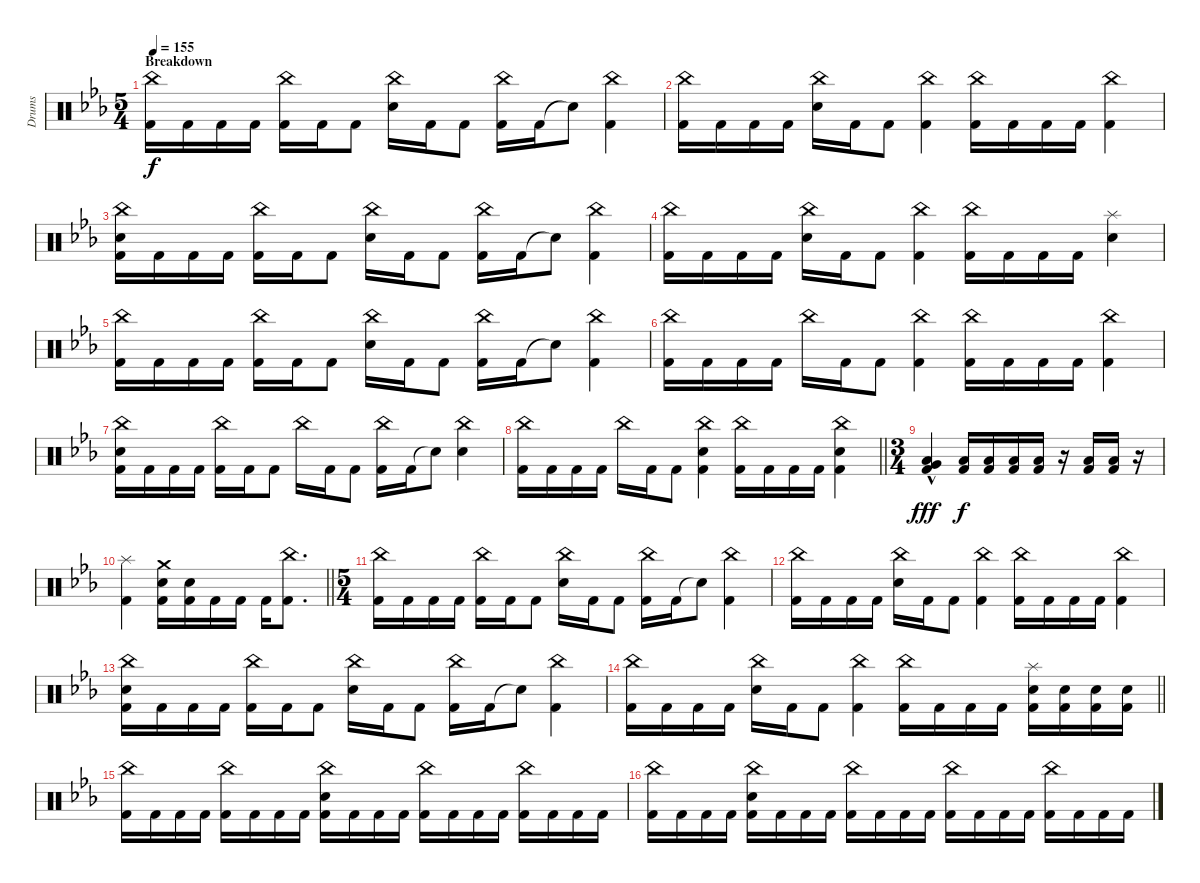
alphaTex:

\track ("Drums" "Drums") {instrument percussion}
\staff {score}
\articulation defaults
\ts (5 4)
\section ("" "Breakdown")
\tempo 155
\clef neutral
\ks cminor
("China (hit)" "Kick (hit) 2").16{dy f} "Kick (hit) 2".16 "Kick (hit) 2".16 "Kick (hit) 2".16 ("China (hit)" "Kick (hit) 2").16 "Kick (hit) 2".16 "Kick (hit) 2".8 ("China (hit)" "Electric Snare (hit)").16 "Kick (hit) 2".16 "Kick (hit) 2".8 ("China (hit)" "Kick (hit) 2").16 "Kick (hit) 2".16 "Snare (hit)"{t}.8 ("China (hit)" "Kick (hit) 2").4 |
("China (hit)" "Kick (hit) 2").16 "Kick (hit) 2".16 "Kick (hit) 2".16 "Kick (hit) 2".16 ("China (hit)" "Electric Snare (hit)").16 "Kick (hit) 2".16 "Kick (hit) 2".8 ("China (hit)" "Kick (hit) 2").4 ("China (hit)" "Kick (hit) 2").16 "Kick (hit) 2".16 "Kick (hit) 2".16 "Kick (hit) 2".16 ("China (hit)" "Kick (hit) 2").4 |
("China (hit)" "Electric Snare (hit)" "Kick (hit) 2").16 "Kick (hit) 2".16 "Kick (hit) 2".16 "Kick (hit) 2".16 ("China (hit)" "Kick (hit) 2").16 "Kick (hit) 2".16 "Kick (hit) 2".8 ("China (hit)" "Electric Snare (hit)").16 "Kick (hit) 2".16 "Kick (hit) 2".8 ("China (hit)" "Kick (hit) 2").16 "Kick (hit) 2".16 "Snare (hit)"{t}.8 ("China (hit)" "Kick (hit) 2").4 |
("China (hit)" "Kick (hit) 2").16 "Kick (hit) 2".16 "Kick (hit) 2".16 "Kick (hit) 2".16 ("China (hit)" "Electric Snare (hit)").16 "Kick (hit) 2".16 "Kick (hit) 2".8 ("China (hit)" "Kick (hit) 2").4 ("China (hit)" "Kick (hit) 2").16 "Kick (hit) 2".16 "Kick (hit) 2".16 "Kick (hit) 2".16 ("Splash (hit)" "Electric Snare (hit)").4 |
("China (hit)" "Kick (hit) 2").16 "Kick (hit) 2".16 "Kick (hit) 2".16 "Kick (hit) 2".16 ("China (hit)" "Kick (hit) 2").16 "Kick (hit) 2".16 "Kick (hit) 2".8 ("China (hit)" "Electric Snare (hit)").16 "Kick (hit) 2".16 "Kick (hit) 2".8 ("China (hit)" "Kick (hit) 2").16 "Kick (hit) 2".16 "Snare (hit)"{t}.8 ("China (hit)" "Kick (hit) 2").4 |
("China (hit)" "Kick (hit) 2").16 "Kick (hit) 2".16 "Kick (hit) 2".16 "Kick (hit) 2".16 "China (hit)".16 "Kick (hit) 2".16 "Kick (hit) 2".8 ("China (hit)" "Kick (hit) 2").4 ("China (hit)" "Kick (hit) 2").16 "Kick (hit) 2".16 "Kick (hit) 2".16 "Kick (hit) 2".16 ("China (hit)" "Kick (hit) 2").4 |
("China (hit)" "Electric Snare (hit)" "Kick (hit) 2").16 "Kick (hit) 2".16 "Kick (hit) 2".16 "Kick (hit) 2".16 ("China (hit)" "Kick (hit) 2").16 "Kick (hit) 2".16 "Kick (hit) 2".8 "China (hit)".16 "Kick (hit) 2".16 "Kick (hit) 2".8 ("China (hit)" "Kick (hit) 2").16 "Kick (hit) 2".16 "Snare (hit)"{t}.8 ("China (hit)" "Electric Snare (hit)").4 |
\barLineRight lightlight
("China (hit)" "Kick (hit) 2").16 "Kick (hit) 2".16 "Kick (hit) 2".16 "Kick (hit) 2".16 "China (hit)".16 "Kick (hit) 2".16 "Kick (hit) 2".8 ("China (hit)" "Electric Snare (hit)" "Kick (hit) 2").4 ("China (hit)" "Kick (hit) 2").16 "Kick (hit) 2".16 "Kick (hit) 2".16 "Kick (hit) 2".16 ("China (hit)" "Electric Snare (hit)" "Kick (hit) 2").4 |
\ts (3 4)
("Very Low Tom (hit)"{hac} "Low Floor Tom (hit)"{hac} "Kick (hit) 2"{hac}).4{dy fff} ("Low Tom (hit)" "Kick (hit) 2").16{dy f} ("Low Tom (hit)" "Kick (hit) 2").16 ("Low Tom (hit)" "Kick (hit) 2").16 ("Low Tom (hit)" "Kick (hit) 2").16 r.16 ("Low Tom (hit)" "Kick (hit) 2").16 ("Low Tom (hit)" "Kick (hit) 2").16 r.16 |
\barLineRight lightlight
("Splash (hit)" "Kick (hit) 2").4 ("Crash medium (hit)" "Electric Snare (hit)" "Kick (hit) 2").16 ("Electric Snare (hit)" "Kick (hit) 2").16 "Kick (hit) 2".16 "Kick (hit) 2".16 "Kick (hit) 2".16 ("China (hit)" "Kick (hit) 2").8{d} |
\ts (5 4)
("China (hit)" "Kick (hit) 2").16 "Kick (hit) 2".16 "Kick (hit) 2".16 "Kick (hit) 2".16 ("China (hit)" "Kick (hit) 2").16 "Kick (hit) 2".16 "Kick (hit) 2".8 ("China (hit)" "Electric Snare (hit)").16 "Kick (hit) 2".16 "Kick (hit) 2".8 ("China (hit)" "Kick (hit) 2").16 "Kick (hit) 2".16 "Snare (hit)"{t}.8 ("China (hit)" "Kick (hit) 2").4 |
("China (hit)" "Kick (hit) 2").16 "Kick (hit) 2".16 "Kick (hit) 2".16 "Kick (hit) 2".16 ("China (hit)" "Electric Snare (hit)").16 "Kick (hit) 2".16 "Kick (hit) 2".8 ("China (hit)" "Kick (hit) 2").4 ("China (hit)" "Kick (hit) 2").16 "Kick (hit) 2".16 "Kick (hit) 2".16 "Kick (hit) 2".16 ("China (hit)" "Kick (hit) 2").4 |
("China (hit)" "Electric Snare (hit)" "Kick (hit) 2").16 "Kick (hit) 2".16 "Kick (hit) 2".16 "Kick (hit) 2".16 ("China (hit)" "Kick (hit) 2").16 "Kick (hit) 2".16 "Kick (hit) 2".8 ("China (hit)" "Electric Snare (hit)").16 "Kick (hit) 2".16 "Kick (hit) 2".8 ("China (hit)" "Kick (hit) 2").16 "Kick (hit) 2".16 "Snare (hit)"{t}.8 ("China (hit)" "Kick (hit) 2").4 |
\barLineRight lightlight
("China (hit)" "Kick (hit) 2").16 "Kick (hit) 2".16 "Kick (hit) 2".16 "Kick (hit) 2".16 ("China (hit)" "Electric Snare (hit)").16 "Kick (hit) 2".16 "Kick (hit) 2".8 ("China (hit)" "Kick (hit) 2").4 ("China (hit)" "Kick (hit) 2").16 "Kick (hit) 2".16 "Kick (hit) 2".16 "Kick (hit) 2".16 ("Splash (hit)" "Electric Snare (hit)" "Kick (hit) 2").16 ("Electric Snare (hit)" "Kick (hit) 2").16 ("Electric Snare (hit)" "Kick (hit) 2").16 ("Electric Snare (hit)" "Kick (hit) 2").16 |
("China (hit)" "Kick (hit) 2").16 "Kick (hit) 2".16 "Kick (hit) 2".16 "Kick (hit) 2".16 ("China (hit)" "Kick (hit) 2").16 "Kick (hit) 2".16 "Kick (hit) 2".16 "Kick (hit) 2".16 ("China (hit)" "Electric Snare (hit)" "Kick (hit) 2").16 "Kick (hit) 2".16 "Kick (hit) 2".16 "Kick (hit) 2".16 ("China (hit)" "Kick (hit) 2").16 "Kick (hit) 2".16 "Kick (hit) 2".16 "Kick (hit) 2".16 ("China (hit)" "Kick (hit) 2").16 "Kick (hit) 2".16 "Kick (hit) 2".16 "Kick (hit) 2".16 |
("China (hit)" "Kick (hit) 2").16 "Kick (hit) 2".16 "Kick (hit) 2".16 "Kick (hit) 2".16 ("China (hit)" "Electric Snare (hit)" "Kick (hit) 2").16 "Kick (hit) 2".16 "Kick (hit) 2".16 "Kick (hit) 2".16 ("China (hit)" "Kick (hit) 2").16 "Kick (hit) 2".16 "Kick (hit) 2".16 "Kick (hit) 2".16 ("China (hit)" "Kick (hit) 2").16 "Kick (hit) 2".16 "Kick (hit) 2".16 "Kick (hit) 2".16 ("China (hit)" "Kick (hit) 2").16 "Kick (hit) 2".16 "Kick (hit) 2".16 "Kick (hit) 2".16
